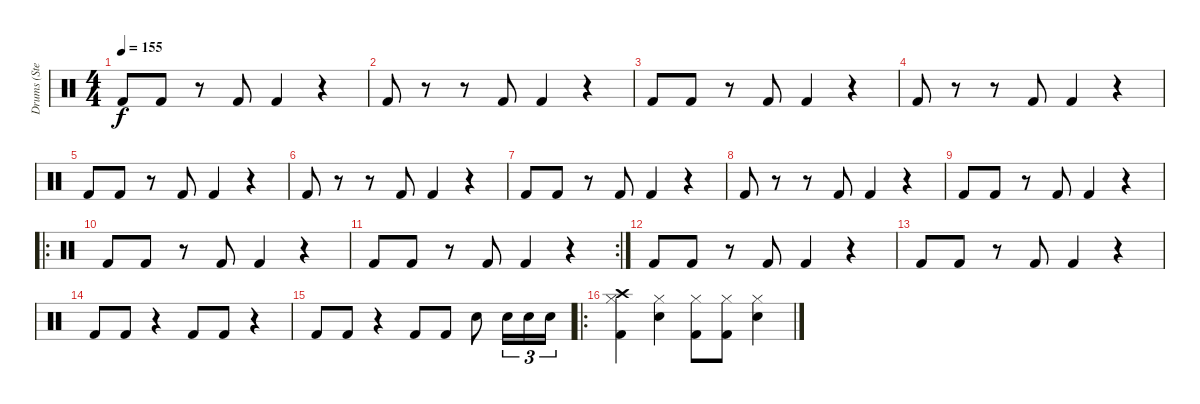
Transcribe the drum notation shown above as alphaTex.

\track ("Drums (Stephen Morris)" "Drums (Ste") {instrument percussion}
\staff {score}
\articulation defaults
\ts (4 4)
\tempo 155
\clef neutral
\ks c "Kick (hit) 2".8{dy f} "Kick (hit) 2".8
r.8 "Kick (hit) 2".8 "Kick (hit) 2".4 r.4 |
"Kick (hit) 2".8 r.8 r.8 "Kick (hit) 2".8 "Kick (hit) 2".4 r.4 |
"Kick (hit) 2".8 "Kick (hit) 2".8 r.8 "Kick (hit) 2".8 "Kick (hit) 2".4 r.4 |
"Kick (hit) 2".8 r.8 r.8 "Kick (hit) 2".8 "Kick (hit) 2".4 r.4 |
"Kick (hit) 2".8 "Kick (hit) 2".8 r.8 "Kick (hit) 2".8 "Kick (hit) 2".4 r.4 |
"Kick (hit) 2".8 r.8 r.8 "Kick (hit) 2".8 "Kick (hit) 2".4 r.4 |
"Kick (hit) 2".8 "Kick (hit) 2".8 r.8 "Kick (hit) 2".8 "Kick (hit) 2".4 r.4 |
"Kick (hit) 2".8 r.8 r.8 "Kick (hit) 2".8 "Kick (hit) 2".4 r.4 |
"Kick (hit) 2".8 "Kick (hit) 2".8 r.8 "Kick (hit) 2".8 "Kick (hit) 2".4 r.4 |
\ro "Kick (hit) 2".8 "Kick (hit) 2".8
r.8 "Kick (hit) 2".8 "Kick (hit) 2".4 r.4 |
\rc 2 "Kick (hit) 2".8 "Kick (hit) 2".8
r.8 "Kick (hit) 2".8 "Kick (hit) 2".4 r.4 |
"Kick (hit) 2".8 "Kick (hit) 2".8 r.8 "Kick (hit) 2".8 "Kick (hit) 2".4 r.4 |
"Kick (hit) 2".8 "Kick (hit) 2".8 r.8 "Kick (hit) 2".8 "Kick (hit) 2".4 r.4 |
"Kick (hit) 2".8 "Kick (hit) 2".8 r.4 "Kick (hit) 2".8 "Kick (hit) 2".8 r.4 |
"Kick (hit) 2".8 "Kick (hit) 2".8 r.4 "Kick (hit) 2".8 "Kick (hit) 2".8 "Snare (hit) 2".8 "Snare (hit) 2".16{tu (3 2)} "Snare (hit) 2".16{tu (3 2)} "Snare (hit) 2".16{tu (3 2)} |
\ro
("Crash high (hit)" "Kick (hit) 2" "Hi-Hat (closed)").4 ("Snare (hit) 2" "Hi-Hat (closed)").4 ("Kick (hit) 2" "Hi-Hat (closed)").8 ("Kick (hit) 2" "Hi-Hat (closed)").8 ("Snare (hit) 2" "Hi-Hat (closed)").4
